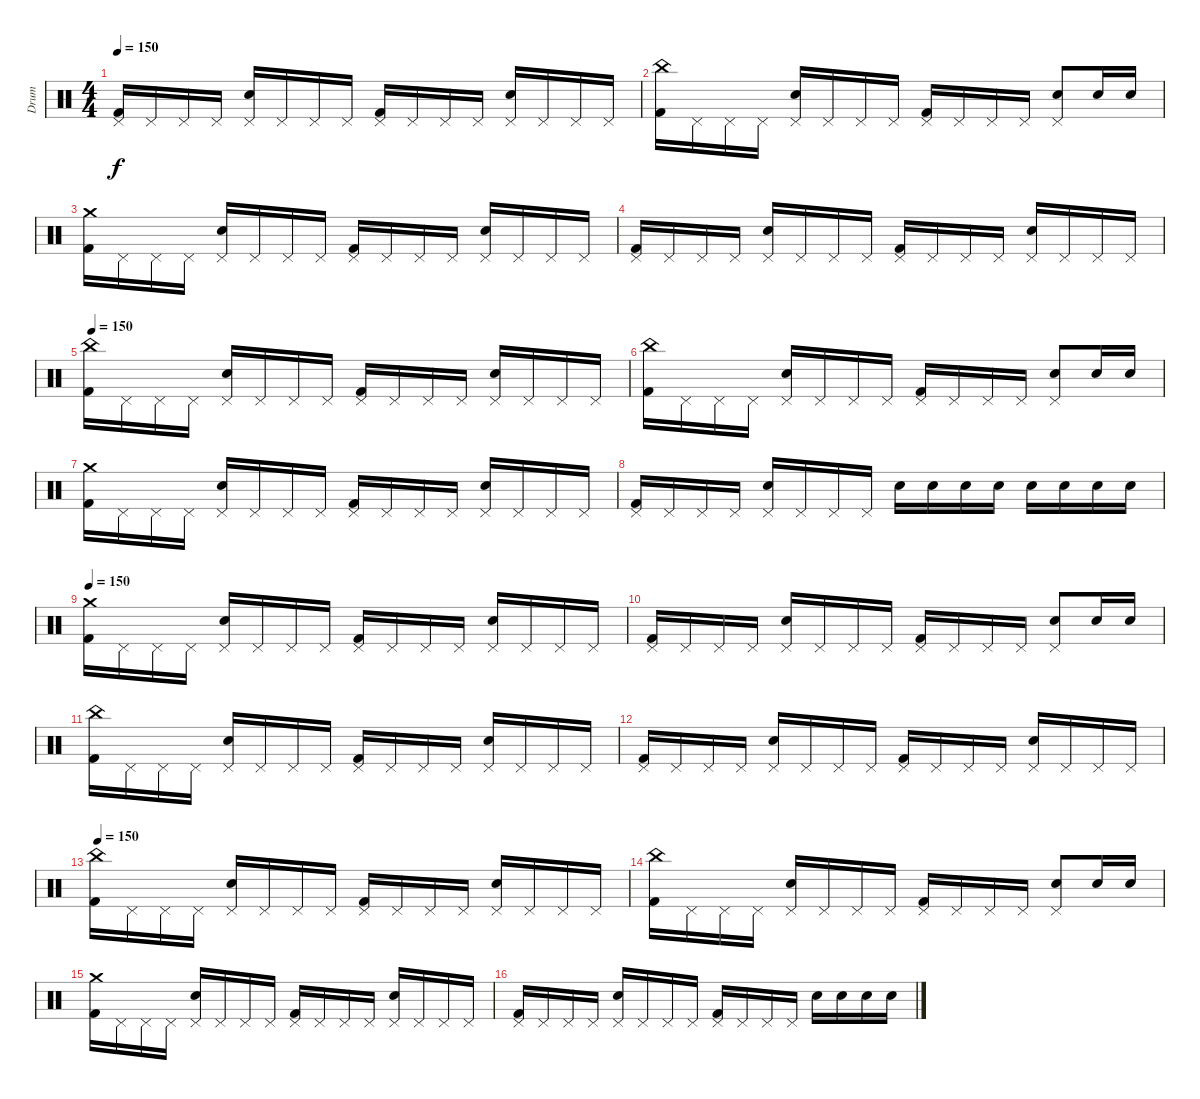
\track ("Drum" "Drum") {instrument percussion}
\staff {score}
\articulation defaults
\ts (4 4)
\tempo 150
\clef neutral
\ks c
("Pedal Hi-Hat (hit)" "Kick (hit) 2").16{dy f} "Pedal Hi-Hat (hit)".16 "Pedal Hi-Hat (hit)".16 "Pedal Hi-Hat (hit)".16 ("Pedal Hi-Hat (hit)" "Electric Snare (hit)").16 "Pedal Hi-Hat (hit)".16 "Pedal Hi-Hat (hit)".16 "Pedal Hi-Hat (hit)".16 ("Pedal Hi-Hat (hit)" "Kick (hit) 2").16 "Pedal Hi-Hat (hit)".16 "Pedal Hi-Hat (hit)".16 "Pedal Hi-Hat (hit)".16 ("Pedal Hi-Hat (hit)" "Electric Snare (hit)").16 "Pedal Hi-Hat (hit)".16 "Pedal Hi-Hat (hit)".16 "Pedal Hi-Hat (hit)".16 |
("China (hit)" "Kick (hit) 2").16 "Pedal Hi-Hat (hit)".16 "Pedal Hi-Hat (hit)".16 "Pedal Hi-Hat (hit)".16 ("Pedal Hi-Hat (hit)" "Electric Snare (hit)").16 "Pedal Hi-Hat (hit)".16 "Pedal Hi-Hat (hit)".16 "Pedal Hi-Hat (hit)".16 ("Pedal Hi-Hat (hit)" "Kick (hit) 2").16 "Pedal Hi-Hat (hit)".16 "Pedal Hi-Hat (hit)".16 "Pedal Hi-Hat (hit)".16 ("Pedal Hi-Hat (hit)" "Electric Snare (hit)").8 "Electric Snare (hit)".16 "Electric Snare (hit)".16 |
("Crash medium (hit)" "Kick (hit) 2").16 "Pedal Hi-Hat (hit)".16 "Pedal Hi-Hat (hit)".16 "Pedal Hi-Hat (hit)".16 ("Pedal Hi-Hat (hit)" "Electric Snare (hit)").16 "Pedal Hi-Hat (hit)".16 "Pedal Hi-Hat (hit)".16 "Pedal Hi-Hat (hit)".16 ("Pedal Hi-Hat (hit)" "Kick (hit) 2").16 "Pedal Hi-Hat (hit)".16 "Pedal Hi-Hat (hit)".16 "Pedal Hi-Hat (hit)".16 ("Pedal Hi-Hat (hit)" "Electric Snare (hit)").16 "Pedal Hi-Hat (hit)".16 "Pedal Hi-Hat (hit)".16 "Pedal Hi-Hat (hit)".16 |
("Pedal Hi-Hat (hit)" "Kick (hit) 2").16 "Pedal Hi-Hat (hit)".16 "Pedal Hi-Hat (hit)".16 "Pedal Hi-Hat (hit)".16 ("Pedal Hi-Hat (hit)" "Electric Snare (hit)").16 "Pedal Hi-Hat (hit)".16 "Pedal Hi-Hat (hit)".16 "Pedal Hi-Hat (hit)".16 ("Pedal Hi-Hat (hit)" "Kick (hit) 2").16 "Pedal Hi-Hat (hit)".16 "Pedal Hi-Hat (hit)".16 "Pedal Hi-Hat (hit)".16 ("Pedal Hi-Hat (hit)" "Electric Snare (hit)").16 "Pedal Hi-Hat (hit)".16 "Pedal Hi-Hat (hit)".16 "Pedal Hi-Hat (hit)".16 |
\tempo 150
("China (hit)" "Kick (hit) 2").16 "Pedal Hi-Hat (hit)".16 "Pedal Hi-Hat (hit)".16 "Pedal Hi-Hat (hit)".16 ("Pedal Hi-Hat (hit)" "Electric Snare (hit)").16 "Pedal Hi-Hat (hit)".16 "Pedal Hi-Hat (hit)".16 "Pedal Hi-Hat (hit)".16 ("Pedal Hi-Hat (hit)" "Kick (hit) 2").16 "Pedal Hi-Hat (hit)".16 "Pedal Hi-Hat (hit)".16 "Pedal Hi-Hat (hit)".16 ("Pedal Hi-Hat (hit)" "Electric Snare (hit)").16 "Pedal Hi-Hat (hit)".16 "Pedal Hi-Hat (hit)".16 "Pedal Hi-Hat (hit)".16 |
("China (hit)" "Kick (hit) 2").16 "Pedal Hi-Hat (hit)".16 "Pedal Hi-Hat (hit)".16 "Pedal Hi-Hat (hit)".16 ("Pedal Hi-Hat (hit)" "Electric Snare (hit)").16 "Pedal Hi-Hat (hit)".16 "Pedal Hi-Hat (hit)".16 "Pedal Hi-Hat (hit)".16 ("Pedal Hi-Hat (hit)" "Kick (hit) 2").16 "Pedal Hi-Hat (hit)".16 "Pedal Hi-Hat (hit)".16 "Pedal Hi-Hat (hit)".16 ("Pedal Hi-Hat (hit)" "Electric Snare (hit)").8 "Electric Snare (hit)".16 "Electric Snare (hit)".16 |
("Crash medium (hit)" "Kick (hit) 2").16 "Pedal Hi-Hat (hit)".16 "Pedal Hi-Hat (hit)".16 "Pedal Hi-Hat (hit)".16 ("Pedal Hi-Hat (hit)" "Electric Snare (hit)").16 "Pedal Hi-Hat (hit)".16 "Pedal Hi-Hat (hit)".16 "Pedal Hi-Hat (hit)".16 ("Pedal Hi-Hat (hit)" "Kick (hit) 2").16 "Pedal Hi-Hat (hit)".16 "Pedal Hi-Hat (hit)".16 "Pedal Hi-Hat (hit)".16 ("Pedal Hi-Hat (hit)" "Electric Snare (hit)").16 "Pedal Hi-Hat (hit)".16 "Pedal Hi-Hat (hit)".16 "Pedal Hi-Hat (hit)".16 |
("Pedal Hi-Hat (hit)" "Kick (hit) 2").16 "Pedal Hi-Hat (hit)".16 "Pedal Hi-Hat (hit)".16 "Pedal Hi-Hat (hit)".16 ("Pedal Hi-Hat (hit)" "Electric Snare (hit)").16 "Pedal Hi-Hat (hit)".16 "Pedal Hi-Hat (hit)".16 "Pedal Hi-Hat (hit)".16 "Electric Snare (hit)".16 "Electric Snare (hit)".16 "Electric Snare (hit)".16 "Electric Snare (hit)".16 "Electric Snare (hit)".16 "Electric Snare (hit)".16 "Electric Snare (hit)".16 "Electric Snare (hit)".16 |
\tempo 150
("Crash medium (hit)" "Kick (hit) 2").16 "Pedal Hi-Hat (hit)".16 "Pedal Hi-Hat (hit)".16 "Pedal Hi-Hat (hit)".16 ("Pedal Hi-Hat (hit)" "Electric Snare (hit)").16 "Pedal Hi-Hat (hit)".16 "Pedal Hi-Hat (hit)".16 "Pedal Hi-Hat (hit)".16 ("Pedal Hi-Hat (hit)" "Kick (hit) 2").16 "Pedal Hi-Hat (hit)".16 "Pedal Hi-Hat (hit)".16 "Pedal Hi-Hat (hit)".16 ("Pedal Hi-Hat (hit)" "Electric Snare (hit)").16 "Pedal Hi-Hat (hit)".16 "Pedal Hi-Hat (hit)".16 "Pedal Hi-Hat (hit)".16 |
("Pedal Hi-Hat (hit)" "Kick (hit) 2").16 "Pedal Hi-Hat (hit)".16 "Pedal Hi-Hat (hit)".16 "Pedal Hi-Hat (hit)".16 ("Pedal Hi-Hat (hit)" "Electric Snare (hit)").16 "Pedal Hi-Hat (hit)".16 "Pedal Hi-Hat (hit)".16 "Pedal Hi-Hat (hit)".16 ("Pedal Hi-Hat (hit)" "Kick (hit) 2").16 "Pedal Hi-Hat (hit)".16 "Pedal Hi-Hat (hit)".16 "Pedal Hi-Hat (hit)".16 ("Pedal Hi-Hat (hit)" "Electric Snare (hit)").8 "Electric Snare (hit)".16 "Electric Snare (hit)".16 |
("China (hit)" "Kick (hit) 2").16 "Pedal Hi-Hat (hit)".16 "Pedal Hi-Hat (hit)".16 "Pedal Hi-Hat (hit)".16 ("Pedal Hi-Hat (hit)" "Electric Snare (hit)").16 "Pedal Hi-Hat (hit)".16 "Pedal Hi-Hat (hit)".16 "Pedal Hi-Hat (hit)".16 ("Pedal Hi-Hat (hit)" "Kick (hit) 2").16 "Pedal Hi-Hat (hit)".16 "Pedal Hi-Hat (hit)".16 "Pedal Hi-Hat (hit)".16 ("Pedal Hi-Hat (hit)" "Electric Snare (hit)").16 "Pedal Hi-Hat (hit)".16 "Pedal Hi-Hat (hit)".16 "Pedal Hi-Hat (hit)".16 |
("Pedal Hi-Hat (hit)" "Kick (hit) 2").16 "Pedal Hi-Hat (hit)".16 "Pedal Hi-Hat (hit)".16 "Pedal Hi-Hat (hit)".16 ("Pedal Hi-Hat (hit)" "Electric Snare (hit)").16 "Pedal Hi-Hat (hit)".16 "Pedal Hi-Hat (hit)".16 "Pedal Hi-Hat (hit)".16 ("Pedal Hi-Hat (hit)" "Kick (hit) 2").16 "Pedal Hi-Hat (hit)".16 "Pedal Hi-Hat (hit)".16 "Pedal Hi-Hat (hit)".16 ("Pedal Hi-Hat (hit)" "Electric Snare (hit)").16 "Pedal Hi-Hat (hit)".16 "Pedal Hi-Hat (hit)".16 "Pedal Hi-Hat (hit)".16 |
\tempo 150
("China (hit)" "Kick (hit) 2").16 "Pedal Hi-Hat (hit)".16 "Pedal Hi-Hat (hit)".16 "Pedal Hi-Hat (hit)".16 ("Pedal Hi-Hat (hit)" "Electric Snare (hit)").16 "Pedal Hi-Hat (hit)".16 "Pedal Hi-Hat (hit)".16 "Pedal Hi-Hat (hit)".16 ("Pedal Hi-Hat (hit)" "Kick (hit) 2").16 "Pedal Hi-Hat (hit)".16 "Pedal Hi-Hat (hit)".16 "Pedal Hi-Hat (hit)".16 ("Pedal Hi-Hat (hit)" "Electric Snare (hit)").16 "Pedal Hi-Hat (hit)".16 "Pedal Hi-Hat (hit)".16 "Pedal Hi-Hat (hit)".16 |
("China (hit)" "Kick (hit) 2").16 "Pedal Hi-Hat (hit)".16 "Pedal Hi-Hat (hit)".16 "Pedal Hi-Hat (hit)".16 ("Pedal Hi-Hat (hit)" "Electric Snare (hit)").16 "Pedal Hi-Hat (hit)".16 "Pedal Hi-Hat (hit)".16 "Pedal Hi-Hat (hit)".16 ("Pedal Hi-Hat (hit)" "Kick (hit) 2").16 "Pedal Hi-Hat (hit)".16 "Pedal Hi-Hat (hit)".16 "Pedal Hi-Hat (hit)".16 ("Pedal Hi-Hat (hit)" "Electric Snare (hit)").8 "Electric Snare (hit)".16 "Electric Snare (hit)".16 |
("Crash medium (hit)" "Kick (hit) 2").16 "Pedal Hi-Hat (hit)".16 "Pedal Hi-Hat (hit)".16 "Pedal Hi-Hat (hit)".16 ("Pedal Hi-Hat (hit)" "Electric Snare (hit)").16 "Pedal Hi-Hat (hit)".16 "Pedal Hi-Hat (hit)".16 "Pedal Hi-Hat (hit)".16 ("Pedal Hi-Hat (hit)" "Kick (hit) 2").16 "Pedal Hi-Hat (hit)".16 "Pedal Hi-Hat (hit)".16 "Pedal Hi-Hat (hit)".16 ("Pedal Hi-Hat (hit)" "Electric Snare (hit)").16 "Pedal Hi-Hat (hit)".16 "Pedal Hi-Hat (hit)".16 "Pedal Hi-Hat (hit)".16 |
("Pedal Hi-Hat (hit)" "Kick (hit) 2").16 "Pedal Hi-Hat (hit)".16 "Pedal Hi-Hat (hit)".16 "Pedal Hi-Hat (hit)".16 ("Pedal Hi-Hat (hit)" "Electric Snare (hit)").16 "Pedal Hi-Hat (hit)".16 "Pedal Hi-Hat (hit)".16 "Pedal Hi-Hat (hit)".16 ("Pedal Hi-Hat (hit)" "Kick (hit) 2").16 "Pedal Hi-Hat (hit)".16 "Pedal Hi-Hat (hit)".16 "Pedal Hi-Hat (hit)".16 "Electric Snare (hit)".16 "Electric Snare (hit)".16 "Electric Snare (hit)".16 "Electric Snare (hit)".16
